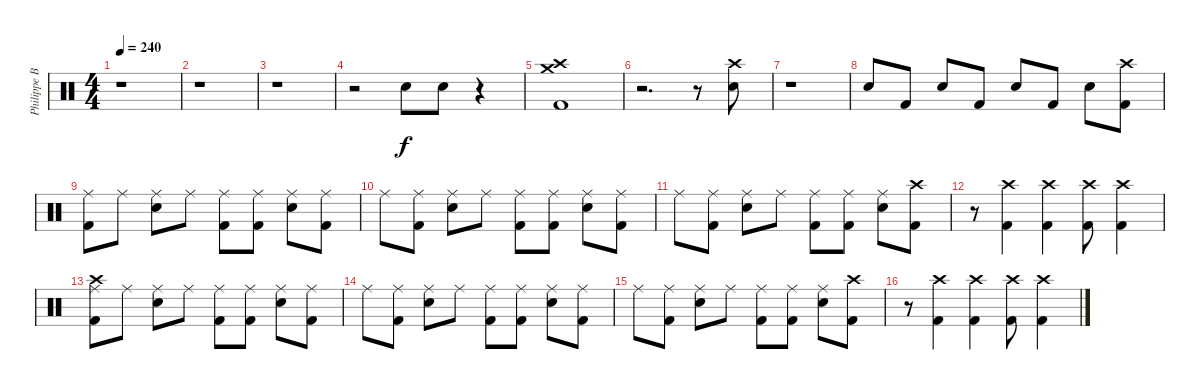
\track ("Philippe Borda" "Philippe B") {instrument percussion}
\staff {score}
\articulation defaults
\ts (4 4)
\tempo 240
\clef neutral
\ks c
r.1{dy f} |
r.1 |
r.1 |
r.2 "Snare (hit) 2".8 "Snare (hit) 2".8 r.4 |
("Crash high (hit)" "Crash medium (hit)" "Kick (hit) 2").1 |
r.2{d} r.8 ("Crash high (hit)" "Snare (hit) 2").8 |
r.1 |
"Snare (hit) 2".8 "Kick (hit) 2".8 "Snare (hit) 2".8 "Kick (hit) 2".8 "Snare (hit) 2".8 "Kick (hit) 2".8 "Snare (hit) 2".8 ("Crash high (hit)" "Kick (hit) 2").8 |
("Ride (middle)" "Kick (hit) 2").8 "Ride (middle)".8 ("Ride (middle)" "Snare (hit) 2").8 "Ride (middle)".8 ("Ride (middle)" "Kick (hit) 2").8 ("Ride (middle)" "Kick (hit) 2").8 ("Ride (middle)" "Snare (hit) 2").8 ("Ride (middle)" "Kick (hit) 2").8 |
"Ride (middle)".8 ("Ride (middle)" "Kick (hit) 2").8 ("Ride (middle)" "Snare (hit) 2").8 "Ride (middle)".8 ("Ride (middle)" "Kick (hit) 2").8 ("Ride (middle)" "Kick (hit) 2").8 ("Ride (middle)" "Snare (hit) 2").8 ("Ride (middle)" "Kick (hit) 2").8 |
"Ride (middle)".8 ("Ride (middle)" "Kick (hit) 2").8 ("Ride (middle)" "Snare (hit) 2").8 "Ride (middle)".8 ("Ride (middle)" "Kick (hit) 2").8 ("Ride (middle)" "Kick (hit) 2").8 ("Ride (middle)" "Snare (hit) 2").8 ("Crash high (hit)" "Kick (hit) 2").8 |
r.8 ("Crash high (hit)" "Kick (hit) 2").4 ("Crash high (hit)" "Kick (hit) 2").4 ("Crash high (hit)" "Kick (hit) 2").8 ("Crash high (hit)" "Kick (hit) 2").4 |
("Crash high (hit)" "Ride (middle)" "Kick (hit) 2").8 "Ride (middle)".8 ("Ride (middle)" "Snare (hit) 2").8 "Ride (middle)".8 ("Ride (middle)" "Kick (hit) 2").8 ("Ride (middle)" "Kick (hit) 2").8 ("Ride (middle)" "Snare (hit) 2").8 ("Ride (middle)" "Kick (hit) 2").8 |
"Ride (middle)".8 ("Ride (middle)" "Kick (hit) 2").8 ("Ride (middle)" "Snare (hit) 2").8 "Ride (middle)".8 ("Ride (middle)" "Kick (hit) 2").8 ("Ride (middle)" "Kick (hit) 2").8 ("Ride (middle)" "Snare (hit) 2").8 ("Ride (middle)" "Kick (hit) 2").8 |
"Ride (middle)".8 ("Ride (middle)" "Kick (hit) 2").8 ("Ride (middle)" "Snare (hit) 2").8 "Ride (middle)".8 ("Ride (middle)" "Kick (hit) 2").8 ("Ride (middle)" "Kick (hit) 2").8 ("Ride (middle)" "Snare (hit) 2").8 ("Crash high (hit)" "Kick (hit) 2").8 |
r.8 ("Crash high (hit)" "Kick (hit) 2").4 ("Crash high (hit)" "Kick (hit) 2").4 ("Crash high (hit)" "Kick (hit) 2").8 ("Crash high (hit)" "Kick (hit) 2").4
